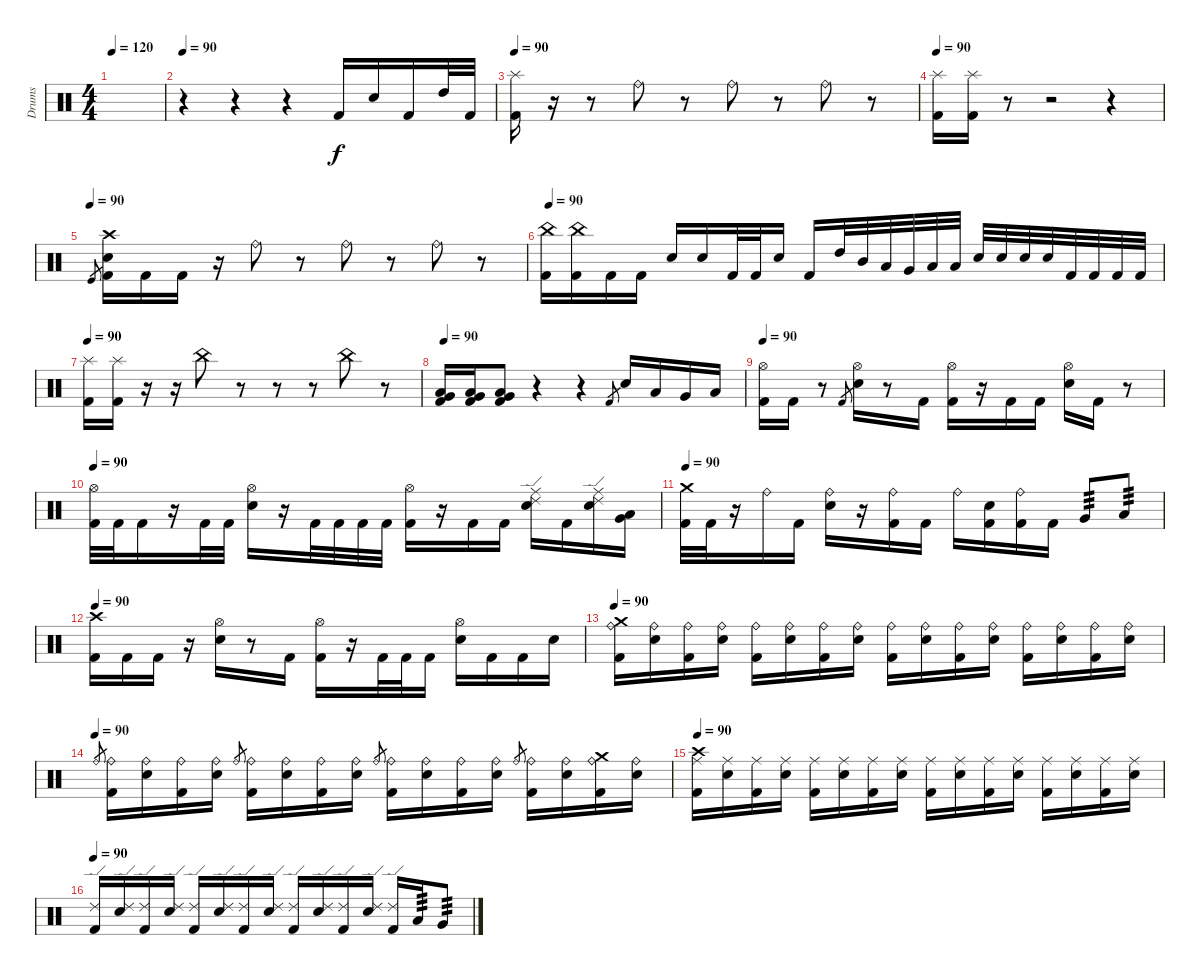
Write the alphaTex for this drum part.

\track ("Drums" "Drums") {instrument percussion}
\staff {score}
\articulation defaults
\ts (4 4)
\tempo 120
\tempo 90
\tempo 120
\clef neutral
\ks c
|
\tempo 90
r.4 r.4 r.4 "Kick (hit) 2".16 "Electric Snare (hit)".16 "Kick (hit) 2".16 "High Tom (hit)".32 "Kick (hit) 2".32 |
\tempo 90
("Kick (hit) 2" "Splash (hit)").16 r.16 r.8 "Ride (bell)".8 r.8 "Ride (bell)".8 r.8 "Ride (bell)".8 r.8 |
\tempo 90
("Kick (hit) 2" "Splash (hit)").16 ("Kick (hit) 2" "Splash (hit)").16 r.8 r.2 r.4 |
\tempo (90)
"Kick (hit)".8{gr} ("Electric Snare (hit)" "Kick (hit) 2" "Crash high (hit)").16 "Kick (hit) 2".16 "Kick (hit) 2".16 r.16 "Ride (bell)".8 r.8 "Ride (bell)".8 r.8 "Ride (bell)".8 r.8 |
\tempo 90
("Kick (hit) 2" "China (hit)").16 ("Kick (hit) 2" "China (hit)").16 "Kick (hit) 2".16 "Kick (hit) 2".16 "Electric Snare (hit)".16 "Electric Snare (hit)".16 "Kick (hit) 2".32 "Kick (hit) 2".32 "Electric Snare (hit)".16 "Kick (hit) 2".16 "High Tom (hit)".32 "Mid Tom (hit)".32 "Low Tom (hit)".32 "Very Low Tom (hit)".32 "Low Floor Tom (hit)".32 "Low Floor Tom (hit)".32 "Electric Snare (hit)".32 "Electric Snare (hit)".32 "Electric Snare (hit)".32 "Electric Snare (hit)".32 "Kick (hit) 2".32 "Kick (hit) 2".32 "Kick (hit) 2".32 "Kick (hit) 2".32 |
\tempo 90
("Splash (hit)" "Kick (hit) 2").16 ("Splash (hit)" "Kick (hit) 2").16 r.16 r.16 "China (hit)".8 r.8 r.8 r.8 "China (hit)".8 r.8 |
\tempo 90
("Kick (hit) 2" "Low Floor Tom (hit)" "Very Low Tom (hit)").16 ("Kick (hit) 2" "Low Floor Tom (hit)" "Very Low Tom (hit)").16 ("Kick (hit) 2" "Low Floor Tom (hit)" "Very Low Tom (hit)").8 r.4 r.4 "Kick (hit) 2".8{gr} "Electric Snare (hit)".16 "Low Tom (hit)".16 "Very Low Tom (hit)".16 "Low Floor Tom (hit)".16 |
\tempo 90
("Hi-Hat (open)" "Kick (hit) 2").16 "Kick (hit) 2".16 r.8 "Kick (hit) 2".8{gr} ("Hi-Hat (open)" "Electric Snare (hit)").16 r.8 "Kick (hit) 2".16 ("Hi-Hat (open)" "Kick (hit) 2").16 r.16 "Kick (hit) 2".16 "Kick (hit) 2".16 ("Hi-Hat (open)" "Electric Snare (hit)").16 "Kick (hit) 2".16 r.8 |
\tempo 90
("Hi-Hat (open)" "Kick (hit) 2").32 "Kick (hit) 2".32 "Kick (hit) 2".16 r.16 "Kick (hit) 2".32 "Kick (hit) 2".32 ("Hi-Hat (open)" "Electric Snare (hit)").16 r.16 "Kick (hit) 2".32 "Kick (hit) 2".32 "Kick (hit) 2".32 "Kick (hit) 2".32 ("Hi-Hat (open)" "Kick (hit) 2").16 r.16 "Kick (hit) 2".16 "Kick (hit) 2".16 ("Ride (edge) 2" "Ride (middle)" "Electric Snare (hit)").16 "Kick (hit) 2".16 ("Ride (edge) 2" "Ride (middle)" "Electric Snare (hit)").16 ("Very Low Tom (hit)" "Low Floor Tom (hit)").16 |
\tempo 90
("Crash medium (hit)" "Kick (hit) 2").32 "Kick (hit) 2".32 r.16 "Ride (bell)".16 "Kick (hit) 2".16 ("Ride (bell)" "Electric Snare (hit)").16 r.16 ("Ride (bell)" "Kick (hit) 2").16 "Kick (hit) 2".16 "Ride (bell)".16 ("Kick (hit) 2" "Electric Snare (hit)").16 ("Ride (bell)" "Kick (hit) 2").16 "Kick (hit) 2".16 "Very Low Tom (hit)".8{tp 3} "Low Floor Tom (hit)".8{tp 3} |
\tempo 90
("Crash high (hit)" "Kick (hit) 2").16 "Kick (hit) 2".16 "Kick (hit) 2".16 r.16 ("Hi-Hat (open)" "Electric Snare (hit)").16 r.8 "Kick (hit) 2".16 ("Hi-Hat (open)" "Kick (hit) 2").16 r.16 "Kick (hit) 2".32 "Kick (hit) 2".32 "Kick (hit) 2".16 ("Hi-Hat (open)" "Electric Snare (hit)").16 "Kick (hit) 2".16 "Kick (hit) 2".16 "Electric Snare (hit)".16 |
\tempo 90
("Crash medium (hit)" "Ride (bell)" "Kick (hit) 2").16 ("Ride (bell)" "Electric Snare (hit)").16 ("Ride (bell)" "Kick (hit) 2").16 ("Ride (bell)" "Electric Snare (hit)").16 ("Ride (bell)" "Kick (hit) 2").16 ("Ride (bell)" "Electric Snare (hit)").16 ("Ride (bell)" "Kick (hit) 2").16 ("Ride (bell)" "Electric Snare (hit)").16 ("Ride (bell)" "Kick (hit) 2").16 ("Ride (bell)" "Electric Snare (hit)").16 ("Ride (bell)" "Kick (hit) 2").16 ("Ride (bell)" "Electric Snare (hit)").16 ("Ride (bell)" "Kick (hit) 2").16 ("Ride (bell)" "Electric Snare (hit)").16 ("Ride (bell)" "Kick (hit) 2").16 ("Ride (bell)" "Electric Snare (hit)").16 |
\tempo (90)
"Ride (bell)".8{gr} ("Ride (bell)" "Kick (hit) 2").16 ("Ride (bell)" "Electric Snare (hit)").16 ("Ride (bell)" "Kick (hit) 2").16 ("Ride (bell)" "Electric Snare (hit)").16 "Ride (bell)".8{gr} ("Ride (bell)" "Kick (hit) 2").16 ("Ride (bell)" "Electric Snare (hit)").16 ("Ride (bell)" "Kick (hit) 2").16 ("Ride (bell)" "Electric Snare (hit)").16 "Ride (bell)".8{gr} ("Ride (bell)" "Kick (hit) 2").16 ("Ride (bell)" "Electric Snare (hit)").16 ("Ride (bell)" "Kick (hit) 2").16 ("Ride (bell)" "Electric Snare (hit)").16 "Ride (bell)".8{gr} ("Ride (bell)" "Kick (hit) 2").16 ("Ride (bell)" "Electric Snare (hit)").16 ("Crash medium (hit)" "Ride (bell)" "Kick (hit) 2").16 ("Ride (bell)" "Electric Snare (hit)").16 |
\tempo 90
("Crash high (hit)" "Ride (middle)" "Kick (hit) 2").16 ("Ride (middle)" "Electric Snare (hit)").16 ("Ride (middle)" "Kick (hit) 2").16 ("Ride (middle)" "Electric Snare (hit)").16 ("Ride (middle)" "Kick (hit) 2").16 ("Ride (middle)" "Electric Snare (hit)").16 ("Ride (middle)" "Kick (hit) 2").16 ("Ride (middle)" "Electric Snare (hit)").16 ("Ride (middle)" "Kick (hit) 2").16 ("Ride (middle)" "Electric Snare (hit)").16 ("Ride (middle)" "Kick (hit) 2").16 ("Ride (middle)" "Electric Snare (hit)").16 ("Ride (middle)" "Kick (hit) 2").16 ("Ride (middle)" "Electric Snare (hit)").16 ("Ride (middle)" "Kick (hit) 2").16 ("Ride (middle)" "Electric Snare (hit)").16 |
\tempo 90
("Ride (edge) 2" "Kick (hit) 2").16 ("Ride (edge) 2" "Electric Snare (hit)").16 ("Ride (edge) 2" "Kick (hit) 2").16 ("Ride (edge) 2" "Electric Snare (hit)").16 ("Ride (edge) 2" "Kick (hit) 2").16 ("Ride (edge) 2" "Electric Snare (hit)").16 ("Ride (edge) 2" "Kick (hit) 2").16 ("Ride (edge) 2" "Electric Snare (hit)").16 ("Ride (edge) 2" "Kick (hit) 2").16 ("Ride (edge) 2" "Electric Snare (hit)").16 ("Ride (edge) 2" "Kick (hit) 2").16 ("Ride (edge) 2" "Electric Snare (hit)").16 ("Ride (edge) 2" "Kick (hit) 2").16 "Low Tom (hit)".16{tp 3} "Very Low Tom (hit)".8{tp 3}
